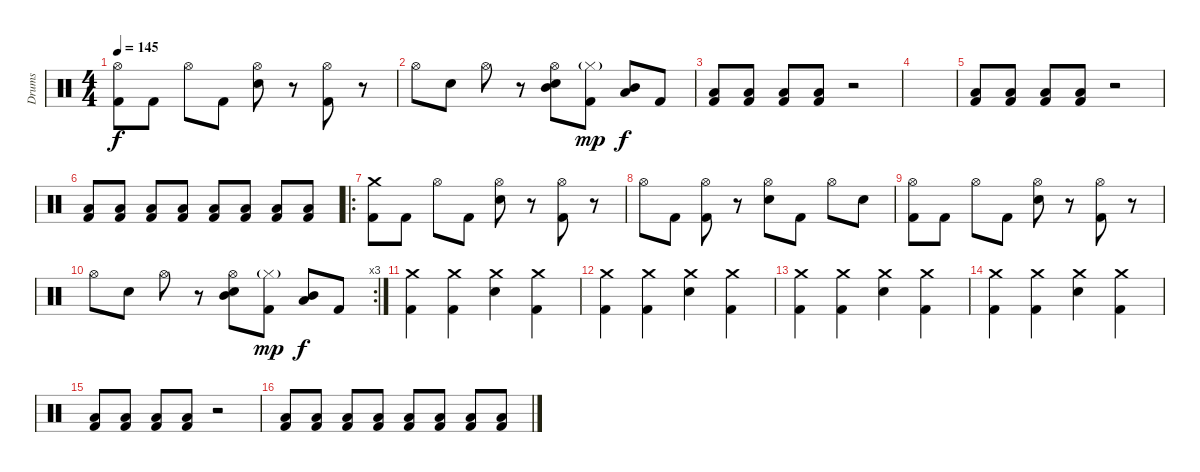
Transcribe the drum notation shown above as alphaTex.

\track ("Drums" "Drums") {instrument percussion}
\staff {score}
\articulation defaults
\ts (4 4)
\tempo 145
\clef neutral
\ks c
("Hi-Hat (open)" "Kick (hit) 2").8{dy f} "Kick (hit) 2".8 "Hi-Hat (open)".8 "Kick (hit) 2".8 ("Hi-Hat (open)" "Electric Snare (hit)").8 r.8 ("Hi-Hat (open)" "Kick (hit) 2").8 r.8 |
"Hi-Hat (open)".8 "Electric Snare (hit)".8 "Hi-Hat (open)".8 r.8 ("Hi-Hat (open)" "Electric Snare (hit)" "Mid Tom (hit)").8 ("Hi-Hat (closed)"{g} "Kick (hit) 2").8{dy mp} ("Mid Tom (hit)" "Low Tom (hit)").8{dy f} "Kick (hit) 2".8 |
("Low Tom (hit)" "Kick (hit) 2").8 ("Low Tom (hit)" "Kick (hit) 2").8 ("Low Tom (hit)" "Kick (hit) 2").8 ("Low Tom (hit)" "Kick (hit) 2").8 r.2 |
|
("Low Tom (hit)" "Kick (hit) 2").8 ("Low Tom (hit)" "Kick (hit) 2").8 ("Low Tom (hit)" "Kick (hit) 2").8 ("Low Tom (hit)" "Kick (hit) 2").8 r.2 |
("Low Tom (hit)" "Kick (hit) 2").8 ("Low Tom (hit)" "Kick (hit) 2").8 ("Low Tom (hit)" "Kick (hit) 2").8 ("Low Tom (hit)" "Kick (hit) 2").8 ("Low Tom (hit)" "Kick (hit) 2").8 ("Low Tom (hit)" "Kick (hit) 2").8 ("Low Tom (hit)" "Kick (hit) 2").8 ("Low Tom (hit)" "Kick (hit) 2").8 |
\ro
("Crash medium (hit)" "Kick (hit) 2").8 "Kick (hit) 2".8 "Hi-Hat (open)".8 "Kick (hit) 2".8 ("Hi-Hat (open)" "Electric Snare (hit)").8 r.8 ("Hi-Hat (open)" "Kick (hit) 2").8 r.8 |
"Hi-Hat (open)".8 "Kick (hit) 2".8 ("Hi-Hat (open)" "Kick (hit) 2").8 r.8 ("Hi-Hat (open)" "Electric Snare (hit)").8 "Kick (hit) 2".8 "Hi-Hat (open)".8 "Electric Snare (hit)".8 |
("Hi-Hat (open)" "Kick (hit) 2").8 "Kick (hit) 2".8 "Hi-Hat (open)".8 "Kick (hit) 2".8 ("Hi-Hat (open)" "Electric Snare (hit)").8 r.8 ("Hi-Hat (open)" "Kick (hit) 2").8 r.8 |
\rc 3 "Hi-Hat (open)".8 "Electric Snare (hit)".8 "Hi-Hat (open)".8
r.8 ("Hi-Hat (open)" "Electric Snare (hit)" "Mid Tom (hit)").8 ("Hi-Hat (closed)"{g} "Kick (hit) 2").8{dy mp} ("Mid Tom (hit)" "Low Tom (hit)").8{dy f} "Kick (hit) 2".8 |
("Crash medium (hit)" "Kick (hit) 2").4 ("Crash medium (hit)" "Kick (hit) 2").4 ("Crash medium (hit)" "Electric Snare (hit)").4 ("Crash medium (hit)" "Kick (hit) 2").4 |
("Crash medium (hit)" "Kick (hit) 2").4 ("Crash medium (hit)" "Kick (hit) 2").4 ("Crash medium (hit)" "Electric Snare (hit)").4 ("Crash medium (hit)" "Kick (hit) 2").4 |
("Crash medium (hit)" "Kick (hit) 2").4 ("Crash medium (hit)" "Kick (hit) 2").4 ("Crash medium (hit)" "Electric Snare (hit)").4 ("Crash medium (hit)" "Kick (hit) 2").4 |
("Crash medium (hit)" "Kick (hit) 2").4 ("Crash medium (hit)" "Kick (hit) 2").4 ("Crash medium (hit)" "Electric Snare (hit)").4 ("Crash medium (hit)" "Kick (hit) 2").4 |
("Low Tom (hit)" "Kick (hit) 2").8 ("Low Tom (hit)" "Kick (hit) 2").8 ("Low Tom (hit)" "Kick (hit) 2").8 ("Low Tom (hit)" "Kick (hit) 2").8 r.2 |
("Low Tom (hit)" "Kick (hit) 2").8 ("Low Tom (hit)" "Kick (hit) 2").8 ("Low Tom (hit)" "Kick (hit) 2").8 ("Low Tom (hit)" "Kick (hit) 2").8 ("Low Tom (hit)" "Kick (hit) 2").8 ("Low Tom (hit)" "Kick (hit) 2").8 ("Low Tom (hit)" "Kick (hit) 2").8 ("Low Tom (hit)" "Kick (hit) 2").8
